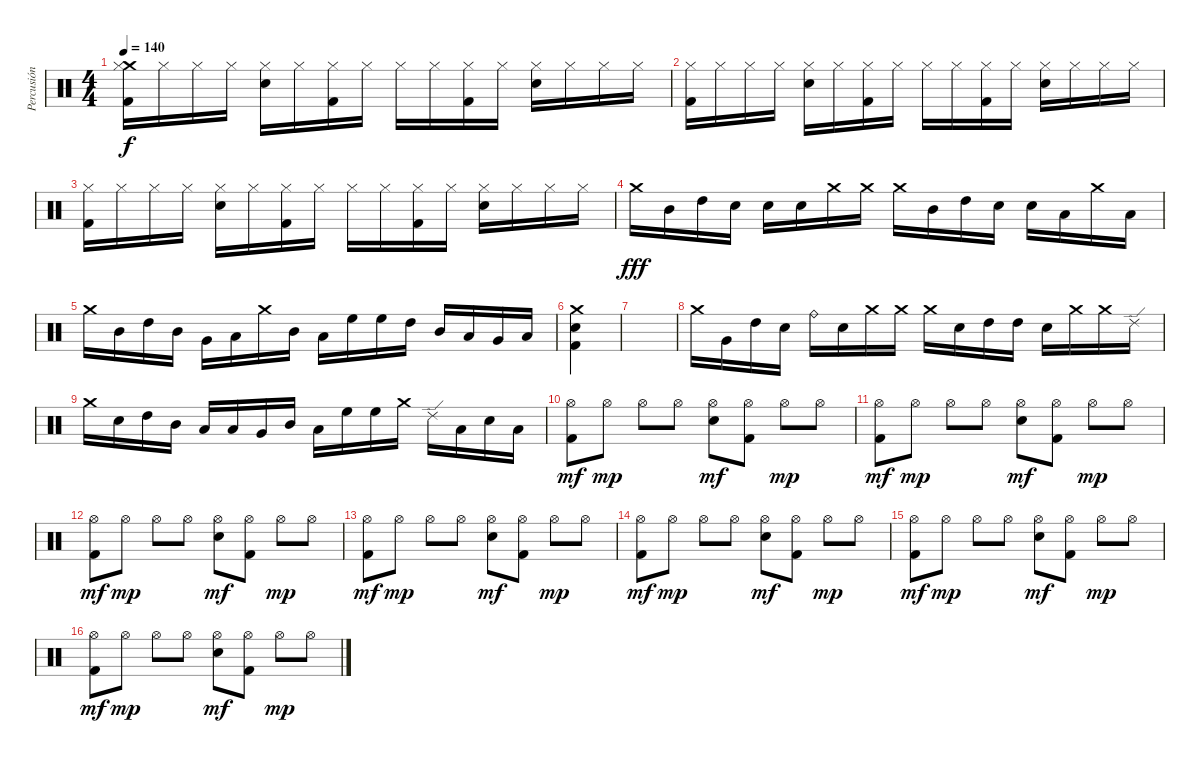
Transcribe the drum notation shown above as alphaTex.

\track ("Percusión" "Percusión") {instrument percussion}
\staff {score}
\articulation defaults
\ts (4 4)
\tempo 140
\clef neutral
\ks c
("Crash medium (hit)" "Hi-Hat (closed)" "Kick (hit) 2").16{dy f} "Hi-Hat (closed)".16 "Hi-Hat (closed)".16 "Hi-Hat (closed)".16 ("Hi-Hat (closed)" "Electric Snare (hit)").16 "Hi-Hat (closed)".16 ("Hi-Hat (closed)" "Kick (hit) 2").16 "Hi-Hat (closed)".16 "Hi-Hat (closed)".16 "Hi-Hat (closed)".16 ("Hi-Hat (closed)" "Kick (hit) 2").16 "Hi-Hat (closed)".16 ("Hi-Hat (closed)" "Electric Snare (hit)").16 "Hi-Hat (closed)".16 "Hi-Hat (closed)".16 "Hi-Hat (closed)".16 |
("Hi-Hat (closed)" "Kick (hit) 2").16 "Hi-Hat (closed)".16 "Hi-Hat (closed)".16 "Hi-Hat (closed)".16 ("Hi-Hat (closed)" "Electric Snare (hit)").16 "Hi-Hat (closed)".16 ("Hi-Hat (closed)" "Kick (hit) 2").16 "Hi-Hat (closed)".16 "Hi-Hat (closed)".16 "Hi-Hat (closed)".16 ("Hi-Hat (closed)" "Kick (hit) 2").16 "Hi-Hat (closed)".16 ("Hi-Hat (closed)" "Electric Snare (hit)").16 "Hi-Hat (closed)".16 "Hi-Hat (closed)".16 "Hi-Hat (closed)".16 |
("Hi-Hat (closed)" "Kick (hit) 2").16 "Hi-Hat (closed)".16 "Hi-Hat (closed)".16 "Hi-Hat (closed)".16 ("Hi-Hat (closed)" "Electric Snare (hit)").16 "Hi-Hat (closed)".16 ("Hi-Hat (closed)" "Kick (hit) 2").16 "Hi-Hat (closed)".16 "Hi-Hat (closed)".16 "Hi-Hat (closed)".16 ("Hi-Hat (closed)" "Kick (hit) 2").16 "Hi-Hat (closed)".16 ("Hi-Hat (closed)" "Electric Snare (hit)").16 "Hi-Hat (closed)".16 "Hi-Hat (closed)".16 "Hi-Hat (closed)".16 |
"Crash medium (hit)".16{dy fff} "Mid Tom (hit)".16 "High Tom (hit)".16 "Electric Snare (hit)".16 "Electric Snare (hit)".16 "Electric Snare (hit)".16 "Crash medium (hit)".16 "Crash medium (hit)".16 "Crash medium (hit)".16 "Mid Tom (hit)".16 "High Tom (hit)".16 "Electric Snare (hit)".16 "Electric Snare (hit)".16 "Low Floor Tom (hit)".16 "Crash medium (hit)".16 "Low Tom (hit)".16 |
"Crash medium (hit)".16 "Mid Tom (hit)".16 "High Tom (hit)".16 "Mid Tom (hit)".16 "Very Low Tom (hit)".16 "Low Tom (hit)".16 "Crash medium (hit)".16 "Mid Tom (hit)".16 "Low Tom (hit)".16 "High Floor Tom (hit)".16 "High Floor Tom (hit)".16 "High Tom (hit)".16 "Mid Tom (hit)".16 "Low Tom (hit)".16 "Very Low Tom (hit)".16 "Low Floor Tom (hit)".16 |
("Kick (hit) 2" "Electric Snare (hit)" "Crash medium (hit)").4 |
|
"Crash medium (hit)".16 "Very Low Tom (hit)".16 "High Tom (hit)".16 "Electric Snare (hit)".16 "Ride (bell)".16 "Electric Snare (hit)".16 "Crash medium (hit)".16 "Crash medium (hit)".16 "Crash medium (hit)".16 "Electric Snare (hit)".16 "High Tom (hit)".16 "High Tom (hit)".16 "Electric Snare (hit)".16 "Crash medium (hit)".16 "Crash medium (hit)".16 "Ride (edge) 2".16 |
"Crash medium (hit)".16 "Electric Snare (hit)".16 "High Tom (hit)".16 "Mid Tom (hit)".16 "Low Tom (hit)".16 "Low Tom (hit)".16 "Very Low Tom (hit)".16 "Mid Tom (hit)".16 "Low Floor Tom (hit)".16 "High Floor Tom (hit)".16 "High Floor Tom (hit)".16 "Crash medium (hit)".16 "Ride (edge) 2".16 "Low Tom (hit)".16 "Electric Snare (hit)".16 "Low Floor Tom (hit)".16 |
("Hi-Hat (open)" "Kick (hit) 2").8{dy mf} "Hi-Hat (open)".8{dy mp} "Hi-Hat (open)".8 "Hi-Hat (open)".8 ("Hi-Hat (open)" "Electric Snare (hit)").8{dy mf} ("Hi-Hat (open)" "Kick (hit) 2").8 "Hi-Hat (open)".8{dy mp} "Hi-Hat (open)".8 |
("Hi-Hat (open)" "Kick (hit) 2").8{dy mf} "Hi-Hat (open)".8{dy mp} "Hi-Hat (open)".8 "Hi-Hat (open)".8 ("Hi-Hat (open)" "Electric Snare (hit)").8{dy mf} ("Hi-Hat (open)" "Kick (hit) 2").8 "Hi-Hat (open)".8{dy mp} "Hi-Hat (open)".8 |
("Hi-Hat (open)" "Kick (hit) 2").8{dy mf} "Hi-Hat (open)".8{dy mp} "Hi-Hat (open)".8 "Hi-Hat (open)".8 ("Hi-Hat (open)" "Electric Snare (hit)").8{dy mf} ("Hi-Hat (open)" "Kick (hit) 2").8 "Hi-Hat (open)".8{dy mp} "Hi-Hat (open)".8 |
("Hi-Hat (open)" "Kick (hit) 2").8{dy mf} "Hi-Hat (open)".8{dy mp} "Hi-Hat (open)".8 "Hi-Hat (open)".8 ("Hi-Hat (open)" "Electric Snare (hit)").8{dy mf} ("Hi-Hat (open)" "Kick (hit) 2").8 "Hi-Hat (open)".8{dy mp} "Hi-Hat (open)".8 |
("Hi-Hat (open)" "Kick (hit) 2").8{dy mf} "Hi-Hat (open)".8{dy mp} "Hi-Hat (open)".8 "Hi-Hat (open)".8 ("Hi-Hat (open)" "Electric Snare (hit)").8{dy mf} ("Hi-Hat (open)" "Kick (hit) 2").8 "Hi-Hat (open)".8{dy mp} "Hi-Hat (open)".8 |
("Hi-Hat (open)" "Kick (hit) 2").8{dy mf} "Hi-Hat (open)".8{dy mp} "Hi-Hat (open)".8 "Hi-Hat (open)".8 ("Hi-Hat (open)" "Electric Snare (hit)").8{dy mf} ("Hi-Hat (open)" "Kick (hit) 2").8 "Hi-Hat (open)".8{dy mp} "Hi-Hat (open)".8 |
("Hi-Hat (open)" "Kick (hit) 2").8{dy mf} "Hi-Hat (open)".8{dy mp} "Hi-Hat (open)".8 "Hi-Hat (open)".8 ("Hi-Hat (open)" "Electric Snare (hit)").8{dy mf} ("Hi-Hat (open)" "Kick (hit) 2").8 "Hi-Hat (open)".8{dy mp} "Hi-Hat (open)".8
